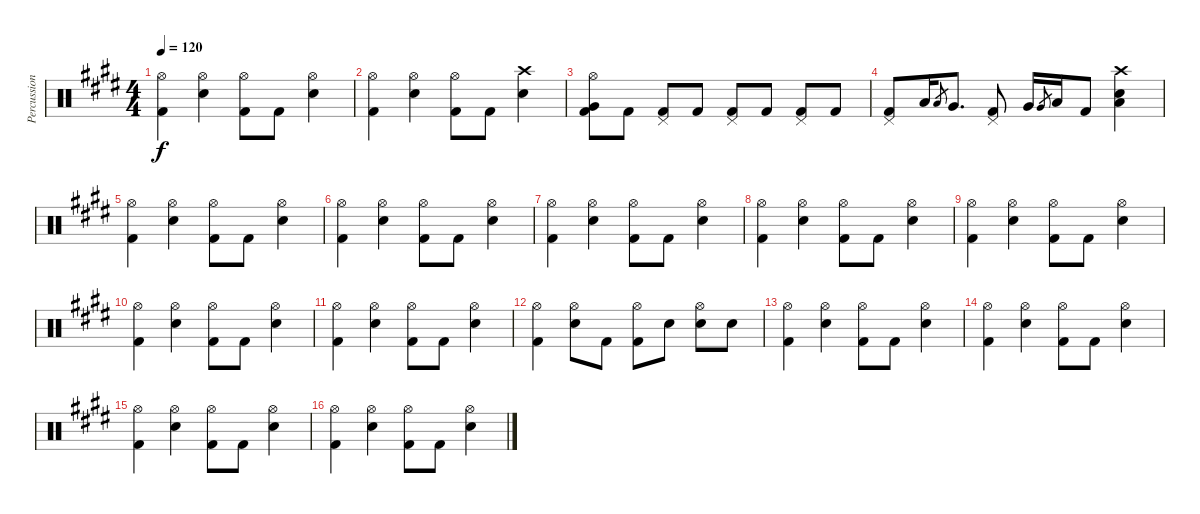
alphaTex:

\track ("Percussion" "Percussion") {instrument percussion}
\staff {score}
\articulation defaults
\ts (4 4)
\tempo 120
\clef neutral
\ks e
("Hi-Hat (open)" "Kick (hit) 2").4{dy f} ("Hi-Hat (open)" "Snare (hit) 2").4 ("Hi-Hat (open)" "Kick (hit) 2").8 "Kick (hit) 2".8 ("Hi-Hat (open)" "Snare (hit) 2").4 |
("Hi-Hat (open)" "Kick (hit) 2").4 ("Hi-Hat (open)" "Snare (hit) 2").4 ("Hi-Hat (open)" "Kick (hit) 2").8 "Kick (hit) 2".8 ("Crash high (hit)" "Snare (hit) 2").4 |
("Hi-Hat (open)" "Very Low Tom (hit)" "Kick (hit) 2").8 "Kick (hit) 2".8 ("Pedal Hi-Hat (hit)" "Kick (hit) 2").8 "Kick (hit) 2".8 ("Pedal Hi-Hat (hit)" "Kick (hit) 2").8 "Kick (hit) 2".8 ("Pedal Hi-Hat (hit)" "Kick (hit) 2").8 "Kick (hit) 2".8 |
("Pedal Hi-Hat (hit)" "Kick (hit) 2").8 "Low Tom (hit)".16 "Low Tom (hit)".8{gr} "Very Low Tom (hit)".8{d} ("Pedal Hi-Hat (hit)" "Kick (hit) 2").8 "Very Low Tom (hit)".16 "Very Low Tom (hit)".8{gr} "Low Floor Tom (hit)".16 "Kick (hit) 2".8 ("Crash high (hit)" "Low Floor Tom (hit)" "Snare (hit) 2").4 |
("Hi-Hat (open)" "Kick (hit) 2").4 ("Hi-Hat (open)" "Snare (hit) 2").4 ("Hi-Hat (open)" "Kick (hit) 2").8 "Kick (hit) 2".8 ("Hi-Hat (open)" "Snare (hit) 2").4 |
("Hi-Hat (open)" "Kick (hit) 2").4 ("Hi-Hat (open)" "Snare (hit) 2").4 ("Hi-Hat (open)" "Kick (hit) 2").8 "Kick (hit) 2".8 ("Hi-Hat (open)" "Snare (hit) 2").4 |
("Hi-Hat (open)" "Kick (hit) 2").4 ("Hi-Hat (open)" "Snare (hit) 2").4 ("Hi-Hat (open)" "Kick (hit) 2").8 "Kick (hit) 2".8 ("Hi-Hat (open)" "Snare (hit) 2").4 |
("Hi-Hat (open)" "Kick (hit) 2").4 ("Hi-Hat (open)" "Snare (hit) 2").4 ("Hi-Hat (open)" "Kick (hit) 2").8 "Kick (hit) 2".8 ("Hi-Hat (open)" "Snare (hit) 2").4 |
("Hi-Hat (open)" "Kick (hit) 2").4 ("Hi-Hat (open)" "Snare (hit) 2").4 ("Hi-Hat (open)" "Kick (hit) 2").8 "Kick (hit) 2".8 ("Hi-Hat (open)" "Snare (hit) 2").4 |
("Hi-Hat (open)" "Kick (hit) 2").4 ("Hi-Hat (open)" "Snare (hit) 2").4 ("Hi-Hat (open)" "Kick (hit) 2").8 "Kick (hit) 2".8 ("Hi-Hat (open)" "Snare (hit) 2").4 |
("Hi-Hat (open)" "Kick (hit) 2").4 ("Hi-Hat (open)" "Snare (hit) 2").4 ("Hi-Hat (open)" "Kick (hit) 2").8 "Kick (hit) 2".8 ("Hi-Hat (open)" "Snare (hit) 2").4 |
("Hi-Hat (open)" "Kick (hit) 2").4 ("Hi-Hat (open)" "Snare (hit) 2").8 "Kick (hit) 2".8 ("Hi-Hat (open)" "Kick (hit) 2").8 "Snare (hit) 2".8 ("Hi-Hat (open)" "Snare (hit) 2").8 "Snare (hit) 2".8 |
("Hi-Hat (open)" "Kick (hit) 2").4 ("Hi-Hat (open)" "Snare (hit) 2").4 ("Hi-Hat (open)" "Kick (hit) 2").8 "Kick (hit) 2".8 ("Hi-Hat (open)" "Snare (hit) 2").4 |
("Hi-Hat (open)" "Kick (hit) 2").4 ("Hi-Hat (open)" "Snare (hit) 2").4 ("Hi-Hat (open)" "Kick (hit) 2").8 "Kick (hit) 2".8 ("Hi-Hat (open)" "Snare (hit) 2").4 |
("Hi-Hat (open)" "Kick (hit) 2").4 ("Hi-Hat (open)" "Snare (hit) 2").4 ("Hi-Hat (open)" "Kick (hit) 2").8 "Kick (hit) 2".8 ("Hi-Hat (open)" "Snare (hit) 2").4 |
("Hi-Hat (open)" "Kick (hit) 2").4 ("Hi-Hat (open)" "Snare (hit) 2").4 ("Hi-Hat (open)" "Kick (hit) 2").8 "Kick (hit) 2".8 ("Hi-Hat (open)" "Snare (hit) 2").4
